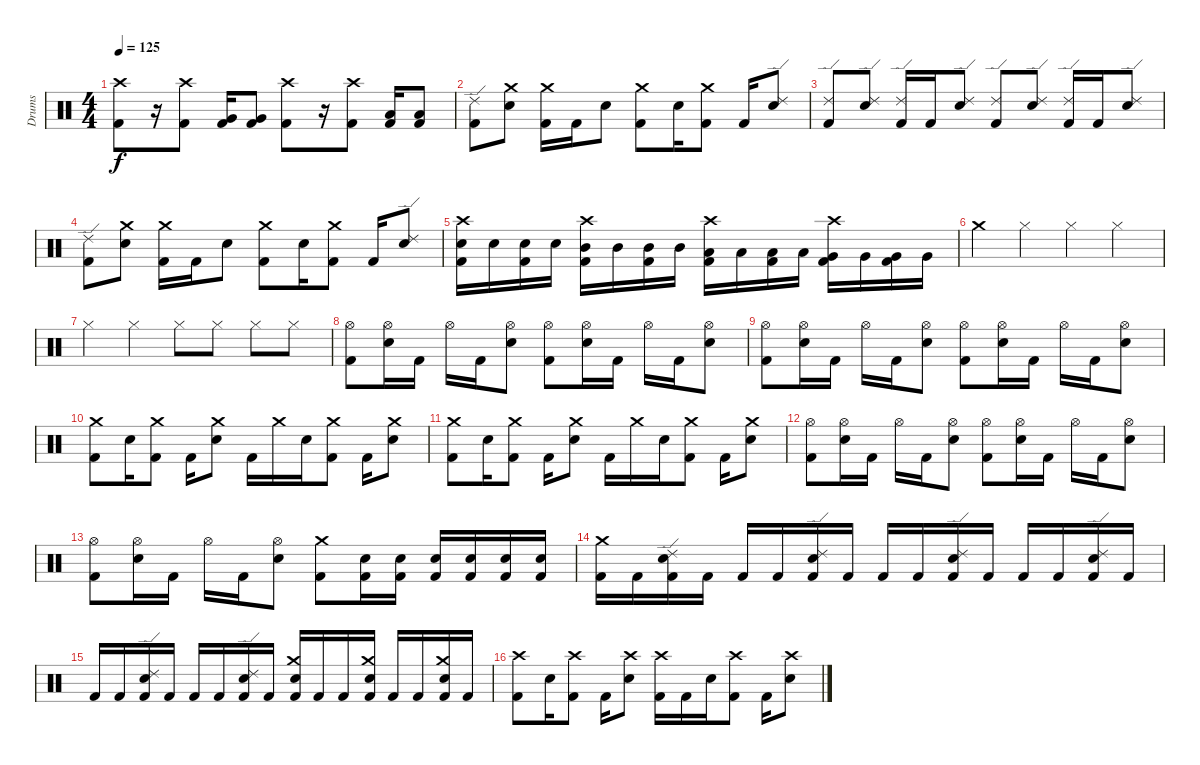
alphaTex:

\track ("Drums" "Drums") {instrument percussion}
\staff {score}
\articulation defaults
\ts (4 4)
\tempo 125
\clef neutral
\ks c
("Crash high (hit)" "Kick (hit) 2").8{dy f} r.16 ("Crash high (hit)" "Kick (hit) 2").8 ("Very Low Tom (hit)" "Kick (hit) 2").16 ("Very Low Tom (hit)" "Kick (hit) 2").8 ("Crash high (hit)" "Kick (hit) 2").8 r.16 ("Crash high (hit)" "Kick (hit) 2").8 ("Low Floor Tom (hit)" "Kick (hit) 2").16 ("Low Floor Tom (hit)" "Kick (hit) 2").8 |
("Ride (edge) 2" "Kick (hit) 2").8 ("Crash medium (hit)" "Snare (hit) 2").8 ("Crash medium (hit)" "Kick (hit) 2").16 "Kick (hit) 2".16 "Snare (hit) 2".8 ("Crash medium (hit)" "Kick (hit) 2").8 "Snare (hit) 2".16 ("Crash medium (hit)" "Kick (hit) 2").8 "Kick (hit) 2".16 ("Snare (hit) 2" "Ride (edge) 2").8 |
("Ride (edge) 2" "Kick (hit) 2").8 ("Snare (hit) 2" "Ride (edge) 2").8 ("Ride (edge) 2" "Kick (hit) 2").16 "Kick (hit) 2".16 ("Snare (hit) 2" "Ride (edge) 2").8 ("Ride (edge) 2" "Kick (hit) 2").8 ("Snare (hit) 2" "Ride (edge) 2").8 ("Ride (edge) 2" "Kick (hit) 2").16 "Kick (hit) 2".16 ("Snare (hit) 2" "Ride (edge) 2").8 |
("Ride (edge) 2" "Kick (hit) 2").8 ("Crash medium (hit)" "Snare (hit) 2").8 ("Crash medium (hit)" "Kick (hit) 2").16 "Kick (hit) 2".16 "Snare (hit) 2".8 ("Crash medium (hit)" "Kick (hit) 2").8 "Snare (hit) 2".16 ("Crash medium (hit)" "Kick (hit) 2").8 "Kick (hit) 2".16 ("Snare (hit) 2" "Ride (edge) 2").8 |
("Crash high (hit)" "Snare (hit) 2" "Kick (hit) 2").16 "Snare (hit) 2".16 ("Snare (hit) 2" "Kick (hit) 2").16 "Snare (hit) 2".16 ("Crash high (hit)" "Mid Tom (hit)" "Kick (hit) 2").16 "Mid Tom (hit)".16 ("Mid Tom (hit)" "Kick (hit) 2").16 "Mid Tom (hit)".16 ("Crash high (hit)" "Low Tom (hit)" "Kick (hit) 2").16 "Low Tom (hit)".16 ("Low Tom (hit)" "Kick (hit) 2").16 "Low Tom (hit)".16 ("Crash high (hit)" "Very Low Tom (hit)" "Kick (hit) 2").16 "Very Low Tom (hit)".16 ("Very Low Tom (hit)" "Kick (hit) 2").16 "Very Low Tom (hit)".16 |
"Crash medium (hit)".4 "Hi-Hat (closed)".4 "Hi-Hat (closed)".4 "Hi-Hat (closed)".4 |
"Hi-Hat (closed)".4 "Hi-Hat (closed)".4 "Hi-Hat (closed)".8 "Hi-Hat (closed)".8 "Hi-Hat (closed)".8 "Hi-Hat (closed)".8 |
("Hi-Hat (open)" "Kick (hit) 2").8 ("Snare (hit) 2" "Hi-Hat (open)").16 "Kick (hit) 2".16 "Hi-Hat (open)".16 "Kick (hit) 2".16 ("Snare (hit) 2" "Hi-Hat (open)").8 ("Hi-Hat (open)" "Kick (hit) 2").8 ("Snare (hit) 2" "Hi-Hat (open)").16 "Kick (hit) 2".16 "Hi-Hat (open)".16 "Kick (hit) 2".16 ("Snare (hit) 2" "Hi-Hat (open)").8 |
("Hi-Hat (open)" "Kick (hit) 2").8 ("Snare (hit) 2" "Hi-Hat (open)").16 "Kick (hit) 2".16 "Hi-Hat (open)".16 "Kick (hit) 2".16 ("Snare (hit) 2" "Hi-Hat (open)").8 ("Hi-Hat (open)" "Kick (hit) 2").8 ("Snare (hit) 2" "Hi-Hat (open)").16 "Kick (hit) 2".16 "Hi-Hat (open)".16 "Kick (hit) 2".16 ("Snare (hit) 2" "Hi-Hat (open)").8 |
("Crash medium (hit)" "Kick (hit) 2").8 "Snare (hit) 2".16 ("Crash medium (hit)" "Kick (hit) 2").8 "Kick (hit) 2".16 ("Crash medium (hit)" "Snare (hit) 2").8 "Kick (hit) 2".16 "Crash medium (hit)".16 "Snare (hit) 2".16 ("Crash medium (hit)" "Kick (hit) 2").8 "Kick (hit) 2".16 ("Crash medium (hit)" "Snare (hit) 2").8 |
("Crash medium (hit)" "Kick (hit) 2").8 "Snare (hit) 2".16 ("Crash medium (hit)" "Kick (hit) 2").8 "Kick (hit) 2".16 ("Crash medium (hit)" "Snare (hit) 2").8 "Kick (hit) 2".16 "Crash medium (hit)".16 "Snare (hit) 2".16 ("Crash medium (hit)" "Kick (hit) 2").8 "Kick (hit) 2".16 ("Crash medium (hit)" "Snare (hit) 2").8 |
("Hi-Hat (open)" "Kick (hit) 2").8 ("Snare (hit) 2" "Hi-Hat (open)").16 "Kick (hit) 2".16 "Hi-Hat (open)".16 "Kick (hit) 2".16 ("Snare (hit) 2" "Hi-Hat (open)").8 ("Hi-Hat (open)" "Kick (hit) 2").8 ("Snare (hit) 2" "Hi-Hat (open)").16 "Kick (hit) 2".16 "Hi-Hat (open)".16 "Kick (hit) 2".16 ("Snare (hit) 2" "Hi-Hat (open)").8 |
("Hi-Hat (open)" "Kick (hit) 2").8 ("Snare (hit) 2" "Hi-Hat (open)").16 "Kick (hit) 2".16 "Hi-Hat (open)".16 "Kick (hit) 2".16 ("Snare (hit) 2" "Hi-Hat (open)").8 ("Crash medium (hit)" "Kick (hit) 2").8 ("Snare (hit) 2" "Kick (hit) 2").16 ("Snare (hit) 2" "Kick (hit) 2").16 ("Snare (hit) 2" "Kick (hit) 2").16 ("Snare (hit) 2" "Kick (hit) 2").16 ("Snare (hit) 2" "Kick (hit) 2").16 ("Snare (hit) 2" "Kick (hit) 2").16 |
("Crash medium (hit)" "Kick (hit) 2").16 "Kick (hit) 2".16 ("Snare (hit) 2" "Ride (edge) 2" "Kick (hit) 2").16 "Kick (hit) 2".16 "Kick (hit) 2".16 "Kick (hit) 2".16 ("Snare (hit) 2" "Ride (edge) 2" "Kick (hit) 2").16 "Kick (hit) 2".16 "Kick (hit) 2".16 "Kick (hit) 2".16 ("Snare (hit) 2" "Ride (edge) 2" "Kick (hit) 2").16 "Kick (hit) 2".16 "Kick (hit) 2".16 "Kick (hit) 2".16 ("Snare (hit) 2" "Ride (edge) 2" "Kick (hit) 2").16 "Kick (hit) 2".16 |
"Kick (hit) 2".16 "Kick (hit) 2".16 ("Snare (hit) 2" "Ride (edge) 2" "Kick (hit) 2").16 "Kick (hit) 2".16 "Kick (hit) 2".16 "Kick (hit) 2".16 ("Snare (hit) 2" "Ride (edge) 2" "Kick (hit) 2").16 "Kick (hit) 2".16 ("Crash medium (hit)" "Snare (hit) 2" "Kick (hit) 2").16 "Kick (hit) 2".16 "Kick (hit) 2".16 ("Crash medium (hit)" "Snare (hit) 2" "Kick (hit) 2").16 "Kick (hit) 2".16 "Kick (hit) 2".16 ("Crash medium (hit)" "Snare (hit) 2" "Kick (hit) 2").16 "Kick (hit) 2".16 |
("Crash high (hit)" "Kick (hit) 2").8 "Snare (hit) 2".16 ("Crash high (hit)" "Kick (hit) 2").8 "Kick (hit) 2".16 ("Crash high (hit)" "Snare (hit) 2").8 ("Crash high (hit)" "Kick (hit) 2").16 "Kick (hit) 2".16 "Snare (hit) 2".16 ("Crash high (hit)" "Kick (hit) 2").8 "Kick (hit) 2".16 ("Crash high (hit)" "Snare (hit) 2").8
